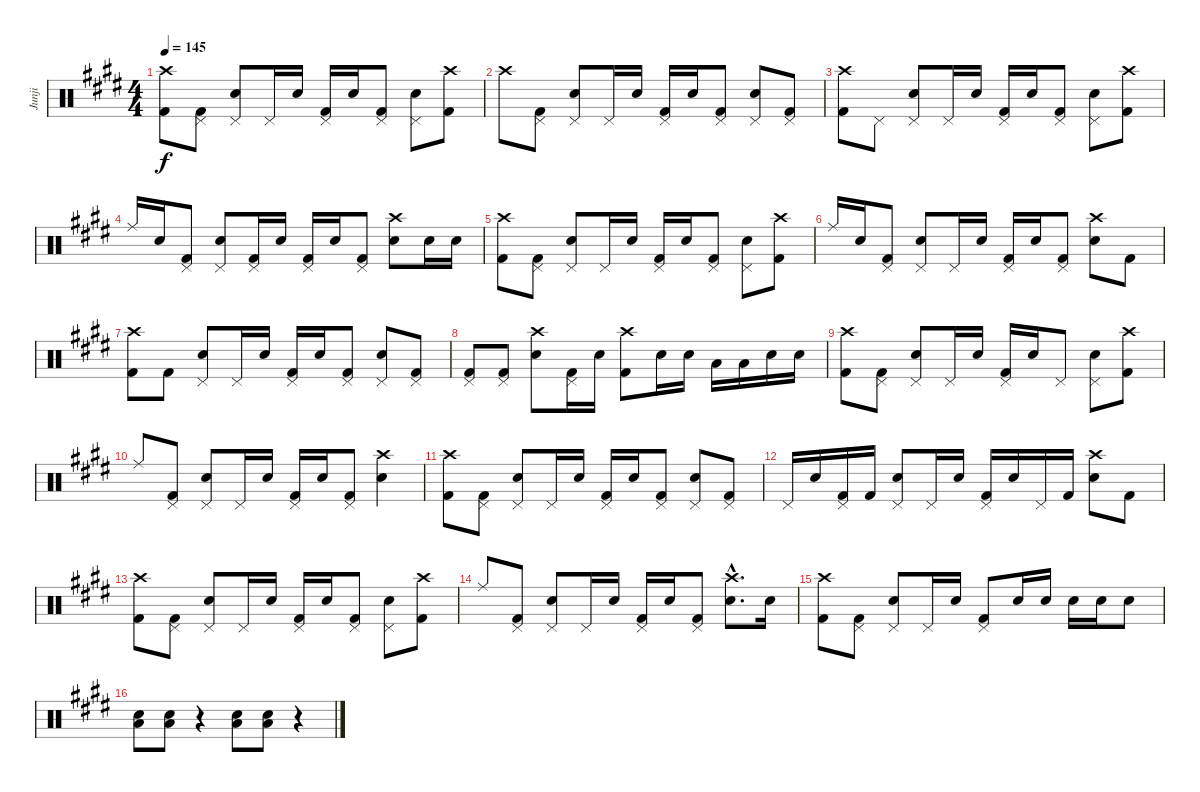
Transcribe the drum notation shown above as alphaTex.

\track ("Junji" "Junji") {instrument percussion}
\staff {score}
\articulation defaults
\ts (4 4)
\tempo 145
\clef neutral
\ks c#minor
("Crash high (hit)" "Kick (hit) 2").8{dy f} ("Pedal Hi-Hat (hit)" "Kick (hit) 2").8 ("Pedal Hi-Hat (hit)" "Snare (hit) 2").8 "Pedal Hi-Hat (hit)".16 "Snare (hit) 2".16 ("Pedal Hi-Hat (hit)" "Kick (hit) 2").16 "Snare (hit) 2".16 ("Pedal Hi-Hat (hit)" "Kick (hit) 2").8 ("Pedal Hi-Hat (hit)" "Snare (hit) 2").8 ("Crash high (hit)" "Kick (hit) 2").8 |
"Crash high (hit)".8 ("Pedal Hi-Hat (hit)" "Kick (hit) 2").8 ("Pedal Hi-Hat (hit)" "Snare (hit) 2").8 "Pedal Hi-Hat (hit)".16 "Snare (hit) 2".16 ("Pedal Hi-Hat (hit)" "Kick (hit) 2").16 "Snare (hit) 2".16 ("Pedal Hi-Hat (hit)" "Kick (hit) 2").8 ("Pedal Hi-Hat (hit)" "Snare (hit) 2").8 ("Pedal Hi-Hat (hit)" "Kick (hit) 2").8 |
("Crash high (hit)" "Kick (hit) 2").8 "Pedal Hi-Hat (hit)".8 ("Pedal Hi-Hat (hit)" "Snare (hit) 2").8 "Pedal Hi-Hat (hit)".16 "Snare (hit) 2".16 ("Pedal Hi-Hat (hit)" "Kick (hit) 2").16 "Snare (hit) 2".16 ("Pedal Hi-Hat (hit)" "Kick (hit) 2").8 ("Pedal Hi-Hat (hit)" "Snare (hit) 2").8 ("Crash high (hit)" "Kick (hit) 2").8 |
"Ride (middle)".16 "Snare (hit) 2".16 ("Pedal Hi-Hat (hit)" "Kick (hit) 2").8 ("Pedal Hi-Hat (hit)" "Snare (hit) 2").8 ("Pedal Hi-Hat (hit)" "Kick (hit) 2").16 "Snare (hit) 2".16 ("Pedal Hi-Hat (hit)" "Kick (hit) 2").16 "Snare (hit) 2".16 ("Pedal Hi-Hat (hit)" "Kick (hit) 2").8 ("Crash high (hit)" "Snare (hit) 2").8 "Snare (hit) 2".16 "Snare (hit) 2".16 |
("Crash high (hit)" "Kick (hit) 2").8 ("Pedal Hi-Hat (hit)" "Kick (hit) 2").8 ("Pedal Hi-Hat (hit)" "Snare (hit) 2").8 "Pedal Hi-Hat (hit)".16 "Snare (hit) 2".16 ("Pedal Hi-Hat (hit)" "Kick (hit) 2").16 "Snare (hit) 2".16 ("Pedal Hi-Hat (hit)" "Kick (hit) 2").8 ("Pedal Hi-Hat (hit)" "Snare (hit) 2").8 ("Crash high (hit)" "Kick (hit) 2").8 |
"Ride (middle)".16 "Snare (hit) 2".16 ("Pedal Hi-Hat (hit)" "Kick (hit) 2").8 ("Pedal Hi-Hat (hit)" "Snare (hit) 2").8 "Pedal Hi-Hat (hit)".16 "Snare (hit) 2".16 ("Pedal Hi-Hat (hit)" "Kick (hit) 2").16 "Snare (hit) 2".16 ("Pedal Hi-Hat (hit)" "Kick (hit) 2").8 ("Crash high (hit)" "Snare (hit) 2").8 "Kick (hit) 2".8 |
("Crash high (hit)" "Kick (hit) 2").8 "Kick (hit) 2".8 ("Pedal Hi-Hat (hit)" "Snare (hit) 2").8 "Pedal Hi-Hat (hit)".16 "Snare (hit) 2".16 ("Pedal Hi-Hat (hit)" "Kick (hit) 2").16 "Snare (hit) 2".16 ("Pedal Hi-Hat (hit)" "Kick (hit) 2").8 ("Pedal Hi-Hat (hit)" "Snare (hit) 2").8 ("Pedal Hi-Hat (hit)" "Kick (hit) 2").8 |
("Pedal Hi-Hat (hit)" "Kick (hit) 2").8 ("Pedal Hi-Hat (hit)" "Kick (hit) 2").8 ("Crash high (hit)" "Snare (hit) 2").8 ("Pedal Hi-Hat (hit)" "Kick (hit) 2").16 "Snare (hit) 2".16 ("Crash high (hit)" "Kick (hit) 2").8 "Snare (hit) 2".16 "Snare (hit) 2".16 "Low Tom (hit)".16 "Low Tom (hit)".16 "Electric Snare (hit)".16 "Electric Snare (hit)".16 |
("Crash high (hit)" "Kick (hit) 2").8 ("Pedal Hi-Hat (hit)" "Kick (hit) 2").8 ("Pedal Hi-Hat (hit)" "Snare (hit) 2").8 "Pedal Hi-Hat (hit)".16 "Snare (hit) 2".16 ("Pedal Hi-Hat (hit)" "Kick (hit) 2").16 "Snare (hit) 2".16 "Pedal Hi-Hat (hit)".8 ("Pedal Hi-Hat (hit)" "Snare (hit) 2").8 ("Crash high (hit)" "Kick (hit) 2").8 |
"Ride (middle)".8 ("Pedal Hi-Hat (hit)" "Kick (hit) 2").8 ("Pedal Hi-Hat (hit)" "Snare (hit) 2").8 "Pedal Hi-Hat (hit)".16 "Snare (hit) 2".16 ("Pedal Hi-Hat (hit)" "Kick (hit) 2").16 "Snare (hit) 2".16 ("Pedal Hi-Hat (hit)" "Kick (hit) 2").8 ("Crash high (hit)" "Snare (hit) 2").4 |
("Crash high (hit)" "Kick (hit) 2").8 ("Pedal Hi-Hat (hit)" "Kick (hit) 2").8 ("Pedal Hi-Hat (hit)" "Snare (hit) 2").8 "Pedal Hi-Hat (hit)".16 "Snare (hit) 2".16 ("Pedal Hi-Hat (hit)" "Kick (hit) 2").16 "Snare (hit) 2".16 ("Pedal Hi-Hat (hit)" "Kick (hit) 2").8 ("Pedal Hi-Hat (hit)" "Snare (hit) 2").8 ("Pedal Hi-Hat (hit)" "Kick (hit) 2").8 |
"Pedal Hi-Hat (hit)".16 "Snare (hit) 2".16 ("Pedal Hi-Hat (hit)" "Kick (hit) 2").16 "Kick (hit) 2".16 ("Pedal Hi-Hat (hit)" "Snare (hit) 2").8 "Pedal Hi-Hat (hit)".16 "Snare (hit) 2".16 ("Pedal Hi-Hat (hit)" "Kick (hit) 2").16 "Snare (hit) 2".16 "Pedal Hi-Hat (hit)".16 "Kick (hit) 2".16 ("Crash high (hit)" "Snare (hit) 2").8 "Kick (hit) 2".8 |
("Crash high (hit)" "Kick (hit) 2").8 ("Pedal Hi-Hat (hit)" "Kick (hit) 2").8 ("Pedal Hi-Hat (hit)" "Snare (hit) 2").8 "Pedal Hi-Hat (hit)".16 "Snare (hit) 2".16 ("Pedal Hi-Hat (hit)" "Kick (hit) 2").16 "Snare (hit) 2".16 ("Pedal Hi-Hat (hit)" "Kick (hit) 2").8 ("Pedal Hi-Hat (hit)" "Snare (hit) 2").8 ("Crash high (hit)" "Kick (hit) 2").8 |
"Ride (middle)".8 ("Pedal Hi-Hat (hit)" "Kick (hit) 2").8 ("Pedal Hi-Hat (hit)" "Snare (hit) 2").8 "Pedal Hi-Hat (hit)".16 "Snare (hit) 2".16 ("Pedal Hi-Hat (hit)" "Kick (hit) 2").16 "Snare (hit) 2".16 ("Pedal Hi-Hat (hit)" "Kick (hit) 2").8 ("Crash high (hit)"{hac} "Snare (hit) 2"{hac}).8{d} "Snare (hit) 2".16 |
("Crash high (hit)" "Kick (hit) 2").8 ("Pedal Hi-Hat (hit)" "Kick (hit) 2").8 ("Pedal Hi-Hat (hit)" "Snare (hit) 2").8 "Pedal Hi-Hat (hit)".16 "Snare (hit) 2".16 ("Pedal Hi-Hat (hit)" "Kick (hit) 2").8 "Snare (hit) 2".16 "Snare (hit) 2".16 "Snare (hit) 2".16 "Snare (hit) 2".16 "Snare (hit) 2".8 |
("Snare (hit) 2" "Low Floor Tom (hit)").8 ("Snare (hit) 2" "Low Floor Tom (hit)").8 r.4 ("Snare (hit) 2" "Low Floor Tom (hit)").8 ("Snare (hit) 2" "Low Floor Tom (hit)").8 r.4
